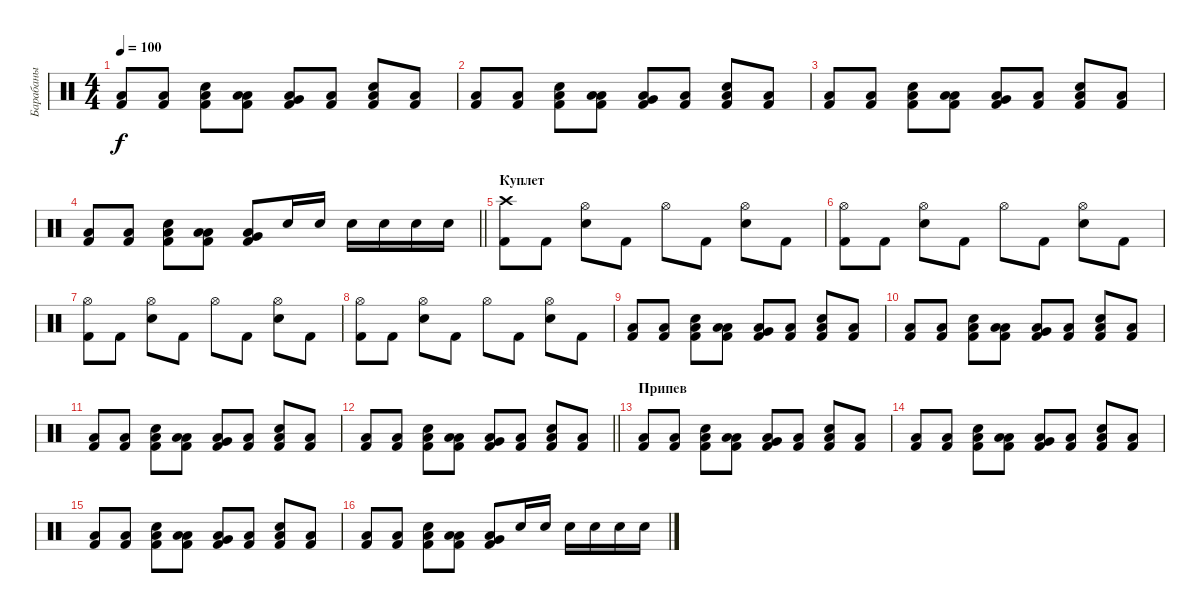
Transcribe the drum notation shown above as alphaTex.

\track ("Барабаны" "Барабаны") {instrument percussion}
\staff {score}
\articulation defaults
\ts (4 4)
\tempo 100
\clef neutral
\ks c
("Low Floor Tom (hit)" "Kick (hit) 2").8{dy f} ("Low Floor Tom (hit)" "Kick (hit) 2").8 ("Electric Snare (hit)" "Low Floor Tom (hit)" "Kick (hit) 2").8 ("Low Tom (hit)" "Low Floor Tom (hit)" "Kick (hit) 2").8 ("Very Low Tom (hit)" "Low Floor Tom (hit)" "Kick (hit) 2").8 ("Low Floor Tom (hit)" "Kick (hit) 2").8 ("Electric Snare (hit)" "Low Floor Tom (hit)" "Kick (hit) 2").8 ("Low Floor Tom (hit)" "Kick (hit) 2").8 |
("Low Floor Tom (hit)" "Kick (hit) 2").8 ("Low Floor Tom (hit)" "Kick (hit) 2").8 ("Electric Snare (hit)" "Low Floor Tom (hit)" "Kick (hit) 2").8 ("Low Tom (hit)" "Low Floor Tom (hit)" "Kick (hit) 2").8 ("Very Low Tom (hit)" "Low Floor Tom (hit)" "Kick (hit) 2").8 ("Low Floor Tom (hit)" "Kick (hit) 2").8 ("Electric Snare (hit)" "Low Floor Tom (hit)" "Kick (hit) 2").8 ("Low Floor Tom (hit)" "Kick (hit) 2").8 |
("Low Floor Tom (hit)" "Kick (hit) 2").8 ("Low Floor Tom (hit)" "Kick (hit) 2").8 ("Electric Snare (hit)" "Low Floor Tom (hit)" "Kick (hit) 2").8 ("Low Tom (hit)" "Low Floor Tom (hit)" "Kick (hit) 2").8 ("Very Low Tom (hit)" "Low Floor Tom (hit)" "Kick (hit) 2").8 ("Low Floor Tom (hit)" "Kick (hit) 2").8 ("Electric Snare (hit)" "Low Floor Tom (hit)" "Kick (hit) 2").8 ("Low Floor Tom (hit)" "Kick (hit) 2").8 |
\barLineRight lightlight
("Low Floor Tom (hit)" "Kick (hit) 2").8 ("Low Floor Tom (hit)" "Kick (hit) 2").8 ("Electric Snare (hit)" "Low Floor Tom (hit)" "Kick (hit) 2").8 ("Low Tom (hit)" "Low Floor Tom (hit)" "Kick (hit) 2").8 ("Very Low Tom (hit)" "Low Floor Tom (hit)" "Kick (hit) 2").8 "Electric Snare (hit)".16 "Electric Snare (hit)".16 "Electric Snare (hit)".16 "Electric Snare (hit)".16 "Electric Snare (hit)".16 "Electric Snare (hit)".16 |
\section ("" "Куплет")
("Crash high (hit)" "Kick (hit) 2").8 "Kick (hit) 2".8 ("Hi-Hat (open)" "Electric Snare (hit)").8 "Kick (hit) 2".8 "Hi-Hat (open)".8 "Kick (hit) 2".8 ("Hi-Hat (open)" "Electric Snare (hit)").8 "Kick (hit) 2".8 |
("Hi-Hat (open)" "Kick (hit) 2").8 "Kick (hit) 2".8 ("Hi-Hat (open)" "Electric Snare (hit)").8 "Kick (hit) 2".8 "Hi-Hat (open)".8 "Kick (hit) 2".8 ("Hi-Hat (open)" "Electric Snare (hit)").8 "Kick (hit) 2".8 |
("Hi-Hat (open)" "Kick (hit) 2").8 "Kick (hit) 2".8 ("Hi-Hat (open)" "Electric Snare (hit)").8 "Kick (hit) 2".8 "Hi-Hat (open)".8 "Kick (hit) 2".8 ("Hi-Hat (open)" "Electric Snare (hit)").8 "Kick (hit) 2".8 |
("Hi-Hat (open)" "Kick (hit) 2").8 "Kick (hit) 2".8 ("Hi-Hat (open)" "Electric Snare (hit)").8 "Kick (hit) 2".8 "Hi-Hat (open)".8 "Kick (hit) 2".8 ("Hi-Hat (open)" "Electric Snare (hit)").8 "Kick (hit) 2".8 |
("Low Floor Tom (hit)" "Kick (hit) 2").8 ("Low Floor Tom (hit)" "Kick (hit) 2").8 ("Electric Snare (hit)" "Low Floor Tom (hit)" "Kick (hit) 2").8 ("Low Tom (hit)" "Low Floor Tom (hit)" "Kick (hit) 2").8 ("Very Low Tom (hit)" "Low Floor Tom (hit)" "Kick (hit) 2").8 ("Low Floor Tom (hit)" "Kick (hit) 2").8 ("Electric Snare (hit)" "Low Floor Tom (hit)" "Kick (hit) 2").8 ("Low Floor Tom (hit)" "Kick (hit) 2").8 |
("Low Floor Tom (hit)" "Kick (hit) 2").8 ("Low Floor Tom (hit)" "Kick (hit) 2").8 ("Electric Snare (hit)" "Low Floor Tom (hit)" "Kick (hit) 2").8 ("Low Tom (hit)" "Low Floor Tom (hit)" "Kick (hit) 2").8 ("Very Low Tom (hit)" "Low Floor Tom (hit)" "Kick (hit) 2").8 ("Low Floor Tom (hit)" "Kick (hit) 2").8 ("Electric Snare (hit)" "Low Floor Tom (hit)" "Kick (hit) 2").8 ("Low Floor Tom (hit)" "Kick (hit) 2").8 |
("Low Floor Tom (hit)" "Kick (hit) 2").8 ("Low Floor Tom (hit)" "Kick (hit) 2").8 ("Electric Snare (hit)" "Low Floor Tom (hit)" "Kick (hit) 2").8 ("Low Tom (hit)" "Low Floor Tom (hit)" "Kick (hit) 2").8 ("Very Low Tom (hit)" "Low Floor Tom (hit)" "Kick (hit) 2").8 ("Low Floor Tom (hit)" "Kick (hit) 2").8 ("Electric Snare (hit)" "Low Floor Tom (hit)" "Kick (hit) 2").8 ("Low Floor Tom (hit)" "Kick (hit) 2").8 |
\barLineRight lightlight
("Low Floor Tom (hit)" "Kick (hit) 2").8 ("Low Floor Tom (hit)" "Kick (hit) 2").8 ("Electric Snare (hit)" "Low Floor Tom (hit)" "Kick (hit) 2").8 ("Low Tom (hit)" "Low Floor Tom (hit)" "Kick (hit) 2").8 ("Very Low Tom (hit)" "Low Floor Tom (hit)" "Kick (hit) 2").8 ("Low Floor Tom (hit)" "Kick (hit) 2").8 ("Electric Snare (hit)" "Low Floor Tom (hit)" "Kick (hit) 2").8 ("Low Floor Tom (hit)" "Kick (hit) 2").8 |
\section ("" "Припев")
("Low Floor Tom (hit)" "Kick (hit) 2").8 ("Low Floor Tom (hit)" "Kick (hit) 2").8 ("Electric Snare (hit)" "Low Floor Tom (hit)" "Kick (hit) 2").8 ("Low Tom (hit)" "Low Floor Tom (hit)" "Kick (hit) 2").8 ("Very Low Tom (hit)" "Low Floor Tom (hit)" "Kick (hit) 2").8 ("Low Floor Tom (hit)" "Kick (hit) 2").8 ("Electric Snare (hit)" "Low Floor Tom (hit)" "Kick (hit) 2").8 ("Low Floor Tom (hit)" "Kick (hit) 2").8 |
("Low Floor Tom (hit)" "Kick (hit) 2").8 ("Low Floor Tom (hit)" "Kick (hit) 2").8 ("Electric Snare (hit)" "Low Floor Tom (hit)" "Kick (hit) 2").8 ("Low Tom (hit)" "Low Floor Tom (hit)" "Kick (hit) 2").8 ("Very Low Tom (hit)" "Low Floor Tom (hit)" "Kick (hit) 2").8 ("Low Floor Tom (hit)" "Kick (hit) 2").8 ("Electric Snare (hit)" "Low Floor Tom (hit)" "Kick (hit) 2").8 ("Low Floor Tom (hit)" "Kick (hit) 2").8 |
("Low Floor Tom (hit)" "Kick (hit) 2").8 ("Low Floor Tom (hit)" "Kick (hit) 2").8 ("Electric Snare (hit)" "Low Floor Tom (hit)" "Kick (hit) 2").8 ("Low Tom (hit)" "Low Floor Tom (hit)" "Kick (hit) 2").8 ("Very Low Tom (hit)" "Low Floor Tom (hit)" "Kick (hit) 2").8 ("Low Floor Tom (hit)" "Kick (hit) 2").8 ("Electric Snare (hit)" "Low Floor Tom (hit)" "Kick (hit) 2").8 ("Low Floor Tom (hit)" "Kick (hit) 2").8 |
("Low Floor Tom (hit)" "Kick (hit) 2").8 ("Low Floor Tom (hit)" "Kick (hit) 2").8 ("Electric Snare (hit)" "Low Floor Tom (hit)" "Kick (hit) 2").8 ("Low Tom (hit)" "Low Floor Tom (hit)" "Kick (hit) 2").8 ("Very Low Tom (hit)" "Low Floor Tom (hit)" "Kick (hit) 2").8 "Electric Snare (hit)".16 "Electric Snare (hit)".16 "Electric Snare (hit)".16 "Electric Snare (hit)".16 "Electric Snare (hit)".16 "Electric Snare (hit)".16
